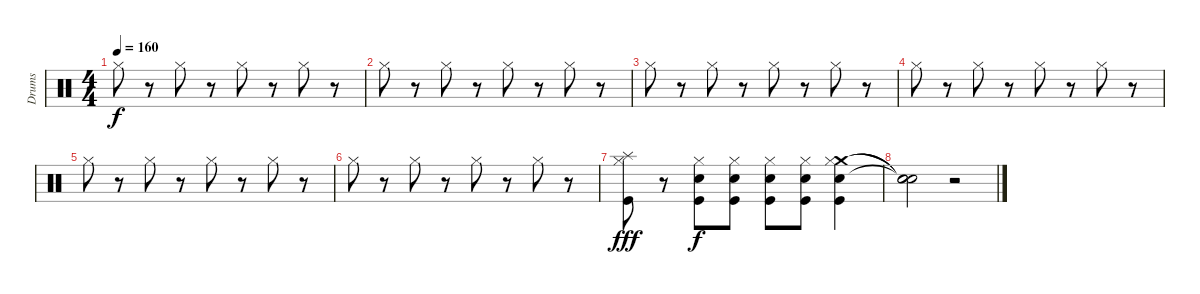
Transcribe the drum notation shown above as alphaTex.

\track ("Drums" "Drums") {instrument percussion}
\staff {score}
\articulation defaults
\ts (4 4)
\tempo 160
\clef neutral
\ks c "Hi-Hat (closed)".8{dy f}
r.8 "Hi-Hat (closed)".8 r.8 "Hi-Hat (closed)".8 r.8 "Hi-Hat (closed)".8 r.8 |
"Hi-Hat (closed)".8 r.8 "Hi-Hat (closed)".8 r.8 "Hi-Hat (closed)".8 r.8 "Hi-Hat (closed)".8 r.8 |
"Hi-Hat (closed)".8 r.8 "Hi-Hat (closed)".8 r.8 "Hi-Hat (closed)".8 r.8 "Hi-Hat (closed)".8 r.8 |
"Hi-Hat (closed)".8 r.8 "Hi-Hat (closed)".8 r.8 "Hi-Hat (closed)".8 r.8 "Hi-Hat (closed)".8 r.8 |
"Hi-Hat (closed)".8 r.8 "Hi-Hat (closed)".8 r.8 "Hi-Hat (closed)".8 r.8 "Hi-Hat (closed)".8 r.8 |
"Hi-Hat (closed)".8 r.8 "Hi-Hat (closed)".8 r.8 "Hi-Hat (closed)".8 r.8 "Hi-Hat (closed)".8 r.8 |
("Kick (hit)" "Splash (hit)" "Hi-Hat (closed)").8{dy fff} r.8 ("Hi-Hat (closed)" "Snare (hit) 2" "Kick (hit)").8{dy f} ("Hi-Hat (closed)" "Snare (hit) 2" "Kick (hit)").8 ("Hi-Hat (closed)" "Snare (hit) 2" "Kick (hit)").8 ("Hi-Hat (closed)" "Snare (hit) 2" "Kick (hit)").8 ("Crash medium (hit)" "Hi-Hat (closed)" "Snare (hit) 2" "Kick (hit)").4 |
("Snare (hit)"{t} "Snare (hit)"{t} "Snare (hit)"{t}).2 r.2
